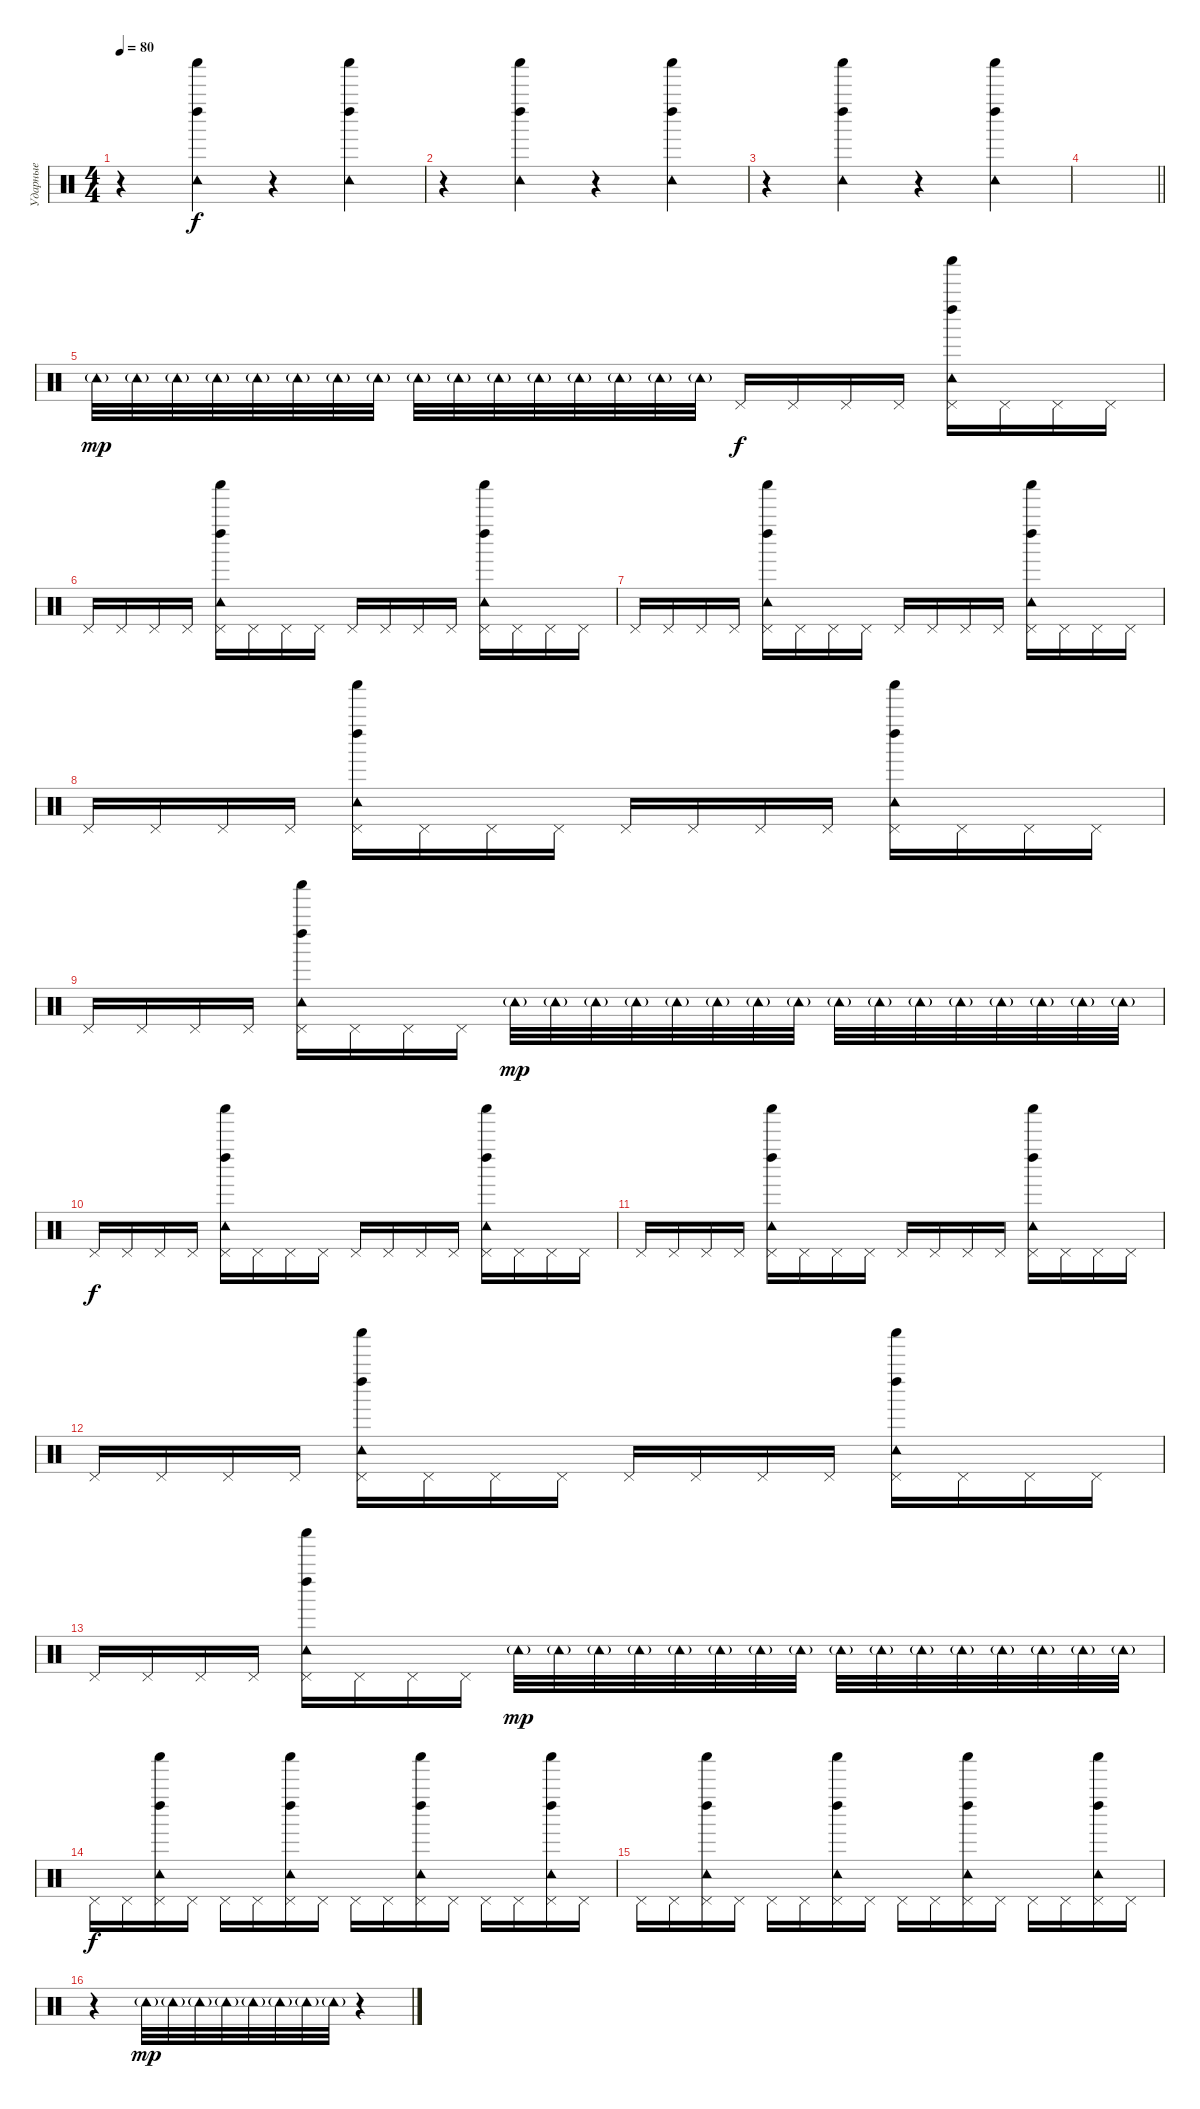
\track ("Ударные" "Ударные") {instrument percussion}
\staff {score}
\articulation defaults
\ts (4 4)
\tempo 80
\clef neutral
\ks c
r.4{dy f} ("Shaker (hit)" "Left Maraca (hit)" "Tambourine (hit)").4 r.4 ("Shaker (hit)" "Left Maraca (hit)" "Tambourine (hit)").4 |
r.4 ("Shaker (hit)" "Left Maraca (hit)" "Tambourine (hit)").4 r.4 ("Shaker (hit)" "Left Maraca (hit)" "Tambourine (hit)").4 |
r.4 ("Shaker (hit)" "Left Maraca (hit)" "Tambourine (hit)").4 r.4 ("Shaker (hit)" "Left Maraca (hit)" "Tambourine (hit)").4 |
\barLineRight lightlight
|
"Tambourine (hit)"{g}.32{dy mp} "Tambourine (hit)"{g}.32 "Tambourine (hit)"{g}.32 "Tambourine (hit)"{g}.32 "Tambourine (hit)"{g}.32 "Tambourine (hit)"{g}.32 "Tambourine (hit)"{g}.32 "Tambourine (hit)"{g}.32 "Tambourine (hit)"{g}.32 "Tambourine (hit)"{g}.32 "Tambourine (hit)"{g}.32 "Tambourine (hit)"{g}.32 "Tambourine (hit)"{g}.32 "Tambourine (hit)"{g}.32 "Tambourine (hit)"{g}.32 "Tambourine (hit)"{g}.32 "Pedal Hi-Hat (hit)".16{dy f} "Pedal Hi-Hat (hit)".16 "Pedal Hi-Hat (hit)".16 "Pedal Hi-Hat (hit)".16 ("Pedal Hi-Hat (hit)" "Shaker (hit)" "Left Maraca (hit)" "Tambourine (hit)").16 "Pedal Hi-Hat (hit)".16 "Pedal Hi-Hat (hit)".16 "Pedal Hi-Hat (hit)".16 |
"Pedal Hi-Hat (hit)".16 "Pedal Hi-Hat (hit)".16 "Pedal Hi-Hat (hit)".16 "Pedal Hi-Hat (hit)".16 ("Pedal Hi-Hat (hit)" "Shaker (hit)" "Left Maraca (hit)" "Tambourine (hit)").16 "Pedal Hi-Hat (hit)".16 "Pedal Hi-Hat (hit)".16 "Pedal Hi-Hat (hit)".16 "Pedal Hi-Hat (hit)".16 "Pedal Hi-Hat (hit)".16 "Pedal Hi-Hat (hit)".16 "Pedal Hi-Hat (hit)".16 ("Pedal Hi-Hat (hit)" "Shaker (hit)" "Left Maraca (hit)" "Tambourine (hit)").16 "Pedal Hi-Hat (hit)".16 "Pedal Hi-Hat (hit)".16 "Pedal Hi-Hat (hit)".16 |
"Pedal Hi-Hat (hit)".16 "Pedal Hi-Hat (hit)".16 "Pedal Hi-Hat (hit)".16 "Pedal Hi-Hat (hit)".16 ("Pedal Hi-Hat (hit)" "Shaker (hit)" "Left Maraca (hit)" "Tambourine (hit)").16 "Pedal Hi-Hat (hit)".16 "Pedal Hi-Hat (hit)".16 "Pedal Hi-Hat (hit)".16 "Pedal Hi-Hat (hit)".16 "Pedal Hi-Hat (hit)".16 "Pedal Hi-Hat (hit)".16 "Pedal Hi-Hat (hit)".16 ("Pedal Hi-Hat (hit)" "Shaker (hit)" "Left Maraca (hit)" "Tambourine (hit)").16 "Pedal Hi-Hat (hit)".16 "Pedal Hi-Hat (hit)".16 "Pedal Hi-Hat (hit)".16 |
"Pedal Hi-Hat (hit)".16 "Pedal Hi-Hat (hit)".16 "Pedal Hi-Hat (hit)".16 "Pedal Hi-Hat (hit)".16 ("Pedal Hi-Hat (hit)" "Shaker (hit)" "Left Maraca (hit)" "Tambourine (hit)").16 "Pedal Hi-Hat (hit)".16 "Pedal Hi-Hat (hit)".16 "Pedal Hi-Hat (hit)".16 "Pedal Hi-Hat (hit)".16 "Pedal Hi-Hat (hit)".16 "Pedal Hi-Hat (hit)".16 "Pedal Hi-Hat (hit)".16 ("Pedal Hi-Hat (hit)" "Shaker (hit)" "Left Maraca (hit)" "Tambourine (hit)").16 "Pedal Hi-Hat (hit)".16 "Pedal Hi-Hat (hit)".16 "Pedal Hi-Hat (hit)".16 |
"Pedal Hi-Hat (hit)".16 "Pedal Hi-Hat (hit)".16 "Pedal Hi-Hat (hit)".16 "Pedal Hi-Hat (hit)".16 ("Pedal Hi-Hat (hit)" "Shaker (hit)" "Left Maraca (hit)" "Tambourine (hit)").16 "Pedal Hi-Hat (hit)".16 "Pedal Hi-Hat (hit)".16 "Pedal Hi-Hat (hit)".16 "Tambourine (hit)"{g}.32{dy mp} "Tambourine (hit)"{g}.32 "Tambourine (hit)"{g}.32 "Tambourine (hit)"{g}.32 "Tambourine (hit)"{g}.32 "Tambourine (hit)"{g}.32 "Tambourine (hit)"{g}.32 "Tambourine (hit)"{g}.32 "Tambourine (hit)"{g}.32 "Tambourine (hit)"{g}.32 "Tambourine (hit)"{g}.32 "Tambourine (hit)"{g}.32 "Tambourine (hit)"{g}.32 "Tambourine (hit)"{g}.32 "Tambourine (hit)"{g}.32 "Tambourine (hit)"{g}.32 |
"Pedal Hi-Hat (hit)".16{dy f} "Pedal Hi-Hat (hit)".16 "Pedal Hi-Hat (hit)".16 "Pedal Hi-Hat (hit)".16 ("Pedal Hi-Hat (hit)" "Shaker (hit)" "Left Maraca (hit)" "Tambourine (hit)").16 "Pedal Hi-Hat (hit)".16 "Pedal Hi-Hat (hit)".16 "Pedal Hi-Hat (hit)".16 "Pedal Hi-Hat (hit)".16 "Pedal Hi-Hat (hit)".16 "Pedal Hi-Hat (hit)".16 "Pedal Hi-Hat (hit)".16 ("Pedal Hi-Hat (hit)" "Shaker (hit)" "Left Maraca (hit)" "Tambourine (hit)").16 "Pedal Hi-Hat (hit)".16 "Pedal Hi-Hat (hit)".16 "Pedal Hi-Hat (hit)".16 |
"Pedal Hi-Hat (hit)".16 "Pedal Hi-Hat (hit)".16 "Pedal Hi-Hat (hit)".16 "Pedal Hi-Hat (hit)".16 ("Pedal Hi-Hat (hit)" "Shaker (hit)" "Left Maraca (hit)" "Tambourine (hit)").16 "Pedal Hi-Hat (hit)".16 "Pedal Hi-Hat (hit)".16 "Pedal Hi-Hat (hit)".16 "Pedal Hi-Hat (hit)".16 "Pedal Hi-Hat (hit)".16 "Pedal Hi-Hat (hit)".16 "Pedal Hi-Hat (hit)".16 ("Pedal Hi-Hat (hit)" "Shaker (hit)" "Left Maraca (hit)" "Tambourine (hit)").16 "Pedal Hi-Hat (hit)".16 "Pedal Hi-Hat (hit)".16 "Pedal Hi-Hat (hit)".16 |
"Pedal Hi-Hat (hit)".16 "Pedal Hi-Hat (hit)".16 "Pedal Hi-Hat (hit)".16 "Pedal Hi-Hat (hit)".16 ("Pedal Hi-Hat (hit)" "Shaker (hit)" "Left Maraca (hit)" "Tambourine (hit)").16 "Pedal Hi-Hat (hit)".16 "Pedal Hi-Hat (hit)".16 "Pedal Hi-Hat (hit)".16 "Pedal Hi-Hat (hit)".16 "Pedal Hi-Hat (hit)".16 "Pedal Hi-Hat (hit)".16 "Pedal Hi-Hat (hit)".16 ("Pedal Hi-Hat (hit)" "Shaker (hit)" "Left Maraca (hit)" "Tambourine (hit)").16 "Pedal Hi-Hat (hit)".16 "Pedal Hi-Hat (hit)".16 "Pedal Hi-Hat (hit)".16 |
"Pedal Hi-Hat (hit)".16 "Pedal Hi-Hat (hit)".16 "Pedal Hi-Hat (hit)".16 "Pedal Hi-Hat (hit)".16 ("Pedal Hi-Hat (hit)" "Shaker (hit)" "Left Maraca (hit)" "Tambourine (hit)").16 "Pedal Hi-Hat (hit)".16 "Pedal Hi-Hat (hit)".16 "Pedal Hi-Hat (hit)".16 "Tambourine (hit)"{g}.32{dy mp} "Tambourine (hit)"{g}.32 "Tambourine (hit)"{g}.32 "Tambourine (hit)"{g}.32 "Tambourine (hit)"{g}.32 "Tambourine (hit)"{g}.32 "Tambourine (hit)"{g}.32 "Tambourine (hit)"{g}.32 "Tambourine (hit)"{g}.32 "Tambourine (hit)"{g}.32 "Tambourine (hit)"{g}.32 "Tambourine (hit)"{g}.32 "Tambourine (hit)"{g}.32 "Tambourine (hit)"{g}.32 "Tambourine (hit)"{g}.32 "Tambourine (hit)"{g}.32 |
"Pedal Hi-Hat (hit)".16{dy f} "Pedal Hi-Hat (hit)".16 ("Pedal Hi-Hat (hit)" "Shaker (hit)" "Left Maraca (hit)" "Tambourine (hit)").16 "Pedal Hi-Hat (hit)".16 "Pedal Hi-Hat (hit)".16 "Pedal Hi-Hat (hit)".16 ("Pedal Hi-Hat (hit)" "Shaker (hit)" "Left Maraca (hit)" "Tambourine (hit)").16 "Pedal Hi-Hat (hit)".16 "Pedal Hi-Hat (hit)".16 "Pedal Hi-Hat (hit)".16 ("Pedal Hi-Hat (hit)" "Shaker (hit)" "Left Maraca (hit)" "Tambourine (hit)").16 "Pedal Hi-Hat (hit)".16 "Pedal Hi-Hat (hit)".16 "Pedal Hi-Hat (hit)".16 ("Pedal Hi-Hat (hit)" "Shaker (hit)" "Left Maraca (hit)" "Tambourine (hit)").16 "Pedal Hi-Hat (hit)".16 |
"Pedal Hi-Hat (hit)".16 "Pedal Hi-Hat (hit)".16 ("Pedal Hi-Hat (hit)" "Shaker (hit)" "Left Maraca (hit)" "Tambourine (hit)").16 "Pedal Hi-Hat (hit)".16 "Pedal Hi-Hat (hit)".16 "Pedal Hi-Hat (hit)".16 ("Pedal Hi-Hat (hit)" "Shaker (hit)" "Left Maraca (hit)" "Tambourine (hit)").16 "Pedal Hi-Hat (hit)".16 "Pedal Hi-Hat (hit)".16 "Pedal Hi-Hat (hit)".16 ("Pedal Hi-Hat (hit)" "Shaker (hit)" "Left Maraca (hit)" "Tambourine (hit)").16 "Pedal Hi-Hat (hit)".16 "Pedal Hi-Hat (hit)".16 "Pedal Hi-Hat (hit)".16 ("Pedal Hi-Hat (hit)" "Shaker (hit)" "Left Maraca (hit)" "Tambourine (hit)").16 "Pedal Hi-Hat (hit)".16 |
r.4 "Tambourine (hit)"{g}.32{dy mp} "Tambourine (hit)"{g}.32 "Tambourine (hit)"{g}.32 "Tambourine (hit)"{g}.32 "Tambourine (hit)"{g}.32 "Tambourine (hit)"{g}.32 "Tambourine (hit)"{g}.32 "Tambourine (hit)"{g}.32 r.4
